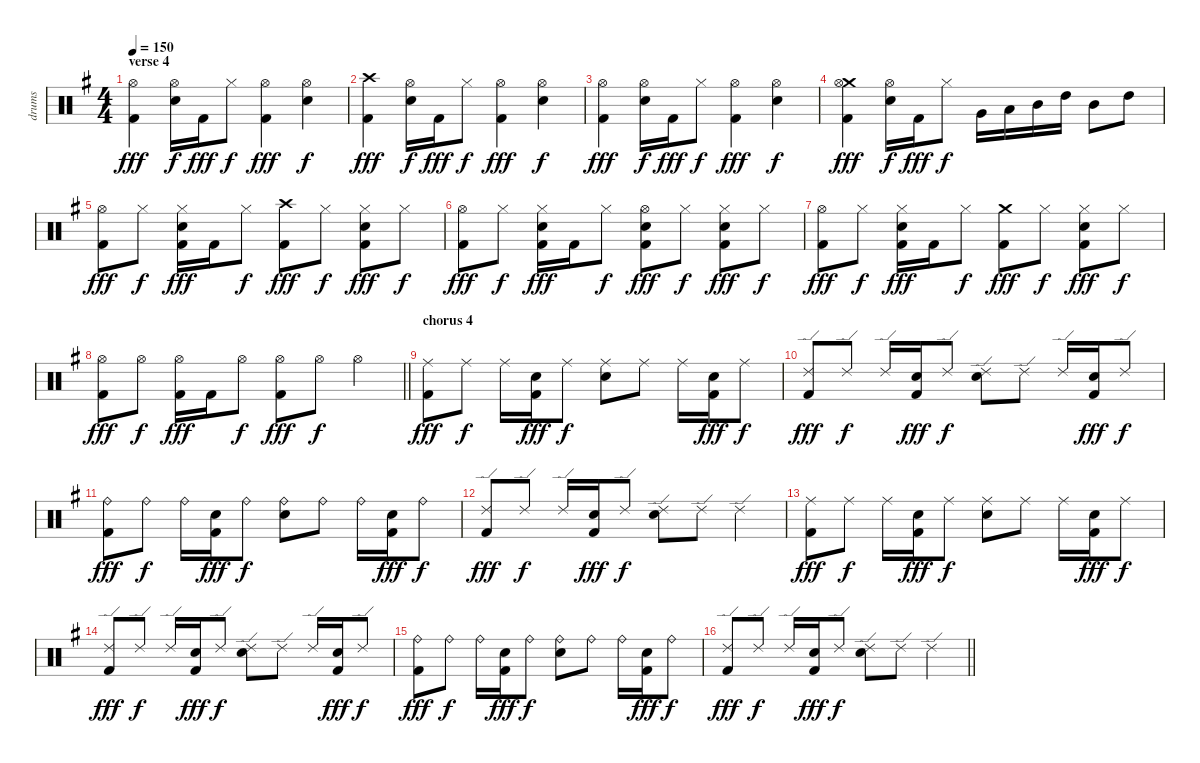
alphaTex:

\track ("drums" "drums") {instrument percussion}
\staff {score}
\articulation defaults
\ts (4 4)
\section ("" "verse 4")
\tempo 150
\clef neutral
\ks eminor
("Hi-Hat (open)" "Kick (hit) 2").4{dy fff} ("Electric Snare (hit)" "Hi-Hat (open)").16{dy f} "Kick (hit) 2".16{dy fff} "Hi-Hat (closed)".8{dy f} ("Hi-Hat (open)" "Kick (hit) 2").4{dy fff} ("Electric Snare (hit)" "Hi-Hat (open)").4{dy f} |
("Crash high (hit)" "Kick (hit) 2").4{dy fff} ("Electric Snare (hit)" "Hi-Hat (open)").16{dy f} "Kick (hit) 2".16{dy fff} "Hi-Hat (closed)".8{dy f} ("Hi-Hat (open)" "Kick (hit) 2").4{dy fff} ("Electric Snare (hit)" "Hi-Hat (open)").4{dy f} |
("Hi-Hat (open)" "Kick (hit) 2").4{dy fff} ("Electric Snare (hit)" "Hi-Hat (open)").16{dy f} "Kick (hit) 2".16{dy fff} "Hi-Hat (closed)".8{dy f} ("Hi-Hat (open)" "Kick (hit) 2").4{dy fff} ("Electric Snare (hit)" "Hi-Hat (open)").4{dy f} |
("Crash medium (hit)" "Hi-Hat (open)" "Kick (hit) 2").4{dy fff} ("Electric Snare (hit)" "Hi-Hat (open)").16{dy f} "Kick (hit) 2".16{dy fff} "Hi-Hat (closed)".8{dy f} "Very Low Tom (hit)".16 "Low Tom (hit)".16 "Mid Tom (hit)".16 "High Tom (hit)".16 "Mid Tom (hit)".8 "High Tom (hit)".8 |
("Hi-Hat (open)" "Kick (hit) 2").8{dy fff} "Hi-Hat (closed)".8{dy f} ("Electric Snare (hit)" "Hi-Hat (closed)" "Kick (hit) 2").16{dy fff} "Kick (hit) 2".16 "Hi-Hat (closed)".8{dy f} ("Crash high (hit)" "Kick (hit) 2").8{dy fff} "Hi-Hat (closed)".8{dy f} ("Electric Snare (hit)" "Hi-Hat (closed)" "Kick (hit) 2").8{dy fff} "Hi-Hat (closed)".8{dy f} |
("Hi-Hat (open)" "Kick (hit) 2").8{dy fff} "Hi-Hat (closed)".8{dy f} ("Electric Snare (hit)" "Hi-Hat (closed)" "Kick (hit) 2").16{dy fff} "Kick (hit) 2".16 "Hi-Hat (closed)".8{dy f} ("Electric Snare (hit)" "Hi-Hat (open)" "Kick (hit) 2").8{dy fff} "Hi-Hat (closed)".8{dy f} ("Electric Snare (hit)" "Hi-Hat (closed)" "Kick (hit) 2").8{dy fff} "Hi-Hat (closed)".8{dy f} |
("Hi-Hat (open)" "Kick (hit) 2").8{dy fff} "Hi-Hat (closed)".8{dy f} ("Electric Snare (hit)" "Hi-Hat (closed)" "Kick (hit) 2").16{dy fff} "Kick (hit) 2".16 "Hi-Hat (closed)".8{dy f} ("Crash medium (hit)" "Kick (hit) 2").8{dy fff} "Hi-Hat (closed)".8{dy f} ("Electric Snare (hit)" "Hi-Hat (closed)" "Kick (hit) 2").8{dy fff} "Hi-Hat (closed)".8{dy f} |
\barLineRight lightlight
("Hi-Hat (open)" "Kick (hit) 2").8{dy fff} "Hi-Hat (open)".8{dy f} ("Hi-Hat (open)" "Kick (hit) 2").16{dy fff} "Kick (hit) 2".16 "Hi-Hat (open)".8{dy f} ("Hi-Hat (open)" "Kick (hit) 2").8{dy fff} "Hi-Hat (open)".8{dy f} "Hi-Hat (open)".4 |
\section ("" "chorus 4")
("Ride (middle)" "Kick (hit) 2").8{dy fff} "Ride (middle)".8{dy f} "Ride (middle)".16 ("Electric Snare (hit)" "Kick (hit) 2").16{dy fff} "Ride (middle)".8{dy f} ("Ride (middle)" "Electric Snare (hit)").8 "Ride (middle)".8 "Ride (middle)".16 ("Electric Snare (hit)" "Kick (hit) 2").16{dy fff} "Ride (middle)".8{dy f} |
("Ride (edge) 2" "Kick (hit) 2").8{dy fff} "Ride (edge) 2".8{dy f} "Ride (edge) 2".16 ("Electric Snare (hit)" "Kick (hit) 2").16{dy fff} "Ride (edge) 2".8{dy f} ("Ride (edge) 2" "Electric Snare (hit)").8 "Ride (edge) 2".8 "Ride (edge) 2".16 ("Electric Snare (hit)" "Kick (hit) 2").16{dy fff} "Ride (edge) 2".8{dy f} |
("Ride (bell)" "Kick (hit) 2").8{dy fff} "Ride (bell)".8{dy f} "Ride (bell)".16 ("Electric Snare (hit)" "Kick (hit) 2").16{dy fff} "Ride (bell)".8{dy f} ("Ride (bell)" "Electric Snare (hit)").8 "Ride (bell)".8 "Ride (bell)".16 ("Electric Snare (hit)" "Kick (hit) 2").16{dy fff} "Ride (bell)".8{dy f} |
("Ride (edge) 2" "Kick (hit) 2").8{dy fff} "Ride (edge) 2".8{dy f} "Ride (edge) 2".16 ("Electric Snare (hit)" "Kick (hit) 2").16{dy fff} "Ride (edge) 2".8{dy f} ("Ride (edge) 2" "Electric Snare (hit)").8 "Ride (edge) 2".8 "Ride (edge) 2".4 |
("Ride (middle)" "Kick (hit) 2").8{dy fff} "Ride (middle)".8{dy f} "Ride (middle)".16 ("Electric Snare (hit)" "Kick (hit) 2").16{dy fff} "Ride (middle)".8{dy f} ("Ride (middle)" "Electric Snare (hit)").8 "Ride (middle)".8 "Ride (middle)".16 ("Electric Snare (hit)" "Kick (hit) 2").16{dy fff} "Ride (middle)".8{dy f} |
("Ride (edge) 2" "Kick (hit) 2").8{dy fff} "Ride (edge) 2".8{dy f} "Ride (edge) 2".16 ("Electric Snare (hit)" "Kick (hit) 2").16{dy fff} "Ride (edge) 2".8{dy f} ("Ride (edge) 2" "Electric Snare (hit)").8 "Ride (edge) 2".8 "Ride (edge) 2".16 ("Electric Snare (hit)" "Kick (hit) 2").16{dy fff} "Ride (edge) 2".8{dy f} |
("Ride (bell)" "Kick (hit) 2").8{dy fff} "Ride (bell)".8{dy f} "Ride (bell)".16 ("Electric Snare (hit)" "Kick (hit) 2").16{dy fff} "Ride (bell)".8{dy f} ("Ride (bell)" "Electric Snare (hit)").8 "Ride (bell)".8 "Ride (bell)".16 ("Electric Snare (hit)" "Kick (hit) 2").16{dy fff} "Ride (bell)".8{dy f} |
\barLineRight lightlight
("Ride (edge) 2" "Kick (hit) 2").8{dy fff} "Ride (edge) 2".8{dy f} "Ride (edge) 2".16 ("Electric Snare (hit)" "Kick (hit) 2").16{dy fff} "Ride (edge) 2".8{dy f} ("Ride (edge) 2" "Electric Snare (hit)").8 "Ride (edge) 2".8 "Ride (edge) 2".4
